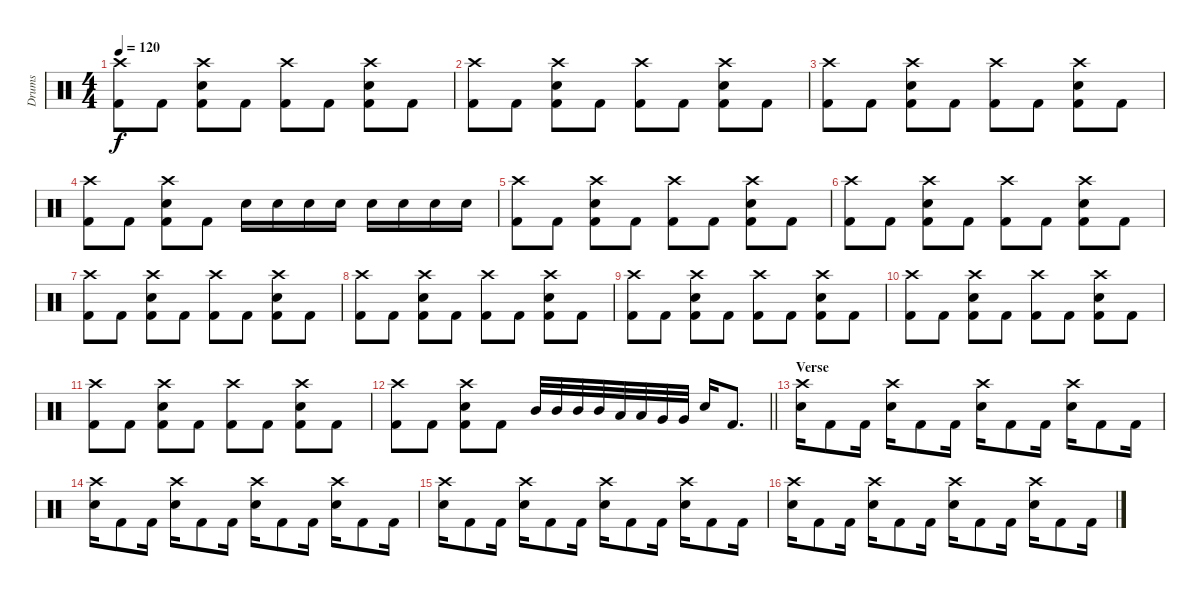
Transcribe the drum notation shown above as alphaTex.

\track ("Drums" "Drums") {instrument percussion}
\staff {score}
\articulation defaults
\ts (4 4)
\tempo 120
\clef neutral
\ks c
("Crash high (hit)" "Kick (hit) 2").8{dy f} "Kick (hit) 2".8 ("Crash high (hit)" "Electric Snare (hit)" "Kick (hit) 2").8 "Kick (hit) 2".8 ("Crash high (hit)" "Kick (hit) 2").8 "Kick (hit) 2".8 ("Crash high (hit)" "Electric Snare (hit)" "Kick (hit) 2").8 "Kick (hit) 2".8 |
("Crash high (hit)" "Kick (hit) 2").8 "Kick (hit) 2".8 ("Crash high (hit)" "Electric Snare (hit)" "Kick (hit) 2").8 "Kick (hit) 2".8 ("Crash high (hit)" "Kick (hit) 2").8 "Kick (hit) 2".8 ("Crash high (hit)" "Electric Snare (hit)" "Kick (hit) 2").8 "Kick (hit) 2".8 |
("Crash high (hit)" "Kick (hit) 2").8 "Kick (hit) 2".8 ("Crash high (hit)" "Electric Snare (hit)" "Kick (hit) 2").8 "Kick (hit) 2".8 ("Crash high (hit)" "Kick (hit) 2").8 "Kick (hit) 2".8 ("Crash high (hit)" "Electric Snare (hit)" "Kick (hit) 2").8 "Kick (hit) 2".8 |
("Crash high (hit)" "Kick (hit) 2").8 "Kick (hit) 2".8 ("Crash high (hit)" "Electric Snare (hit)" "Kick (hit) 2").8 "Kick (hit) 2".8 "Electric Snare (hit)".16 "Electric Snare (hit)".16 "Electric Snare (hit)".16 "Electric Snare (hit)".16 "Electric Snare (hit)".16 "Electric Snare (hit)".16 "Electric Snare (hit)".16 "Electric Snare (hit)".16 |
("Crash high (hit)" "Kick (hit) 2").8 "Kick (hit) 2".8 ("Crash high (hit)" "Electric Snare (hit)" "Kick (hit) 2").8 "Kick (hit) 2".8 ("Crash high (hit)" "Kick (hit) 2").8 "Kick (hit) 2".8 ("Crash high (hit)" "Electric Snare (hit)" "Kick (hit) 2").8 "Kick (hit) 2".8 |
("Crash high (hit)" "Kick (hit) 2").8 "Kick (hit) 2".8 ("Crash high (hit)" "Electric Snare (hit)" "Kick (hit) 2").8 "Kick (hit) 2".8 ("Crash high (hit)" "Kick (hit) 2").8 "Kick (hit) 2".8 ("Crash high (hit)" "Electric Snare (hit)" "Kick (hit) 2").8 "Kick (hit) 2".8 |
("Crash high (hit)" "Kick (hit) 2").8 "Kick (hit) 2".8 ("Crash high (hit)" "Electric Snare (hit)" "Kick (hit) 2").8 "Kick (hit) 2".8 ("Crash high (hit)" "Kick (hit) 2").8 "Kick (hit) 2".8 ("Crash high (hit)" "Electric Snare (hit)" "Kick (hit) 2").8 "Kick (hit) 2".8 |
("Crash high (hit)" "Kick (hit) 2").8 "Kick (hit) 2".8 ("Crash high (hit)" "Electric Snare (hit)" "Kick (hit) 2").8 "Kick (hit) 2".8 ("Crash high (hit)" "Kick (hit) 2").8 "Kick (hit) 2".8 ("Crash high (hit)" "Electric Snare (hit)" "Kick (hit) 2").8 "Kick (hit) 2".8 |
("Crash high (hit)" "Kick (hit) 2").8 "Kick (hit) 2".8 ("Crash high (hit)" "Electric Snare (hit)" "Kick (hit) 2").8 "Kick (hit) 2".8 ("Crash high (hit)" "Kick (hit) 2").8 "Kick (hit) 2".8 ("Crash high (hit)" "Electric Snare (hit)" "Kick (hit) 2").8 "Kick (hit) 2".8 |
("Crash high (hit)" "Kick (hit) 2").8 "Kick (hit) 2".8 ("Crash high (hit)" "Electric Snare (hit)" "Kick (hit) 2").8 "Kick (hit) 2".8 ("Crash high (hit)" "Kick (hit) 2").8 "Kick (hit) 2".8 ("Crash high (hit)" "Electric Snare (hit)" "Kick (hit) 2").8 "Kick (hit) 2".8 |
("Crash high (hit)" "Kick (hit) 2").8 "Kick (hit) 2".8 ("Crash high (hit)" "Electric Snare (hit)" "Kick (hit) 2").8 "Kick (hit) 2".8 ("Crash high (hit)" "Kick (hit) 2").8 "Kick (hit) 2".8 ("Crash high (hit)" "Electric Snare (hit)" "Kick (hit) 2").8 "Kick (hit) 2".8 |
\barLineRight lightlight
("Crash high (hit)" "Kick (hit) 2").8 "Kick (hit) 2".8 ("Crash high (hit)" "Electric Snare (hit)" "Kick (hit) 2").8 "Kick (hit) 2".8 "Mid Tom (hit)".32 "Mid Tom (hit)".32 "Mid Tom (hit)".32 "Mid Tom (hit)".32 "Low Tom (hit)".32 "Low Tom (hit)".32 "Very Low Tom (hit)".32 "Very Low Tom (hit)".32 "Electric Snare (hit)".16 "Kick (hit) 2".8{d} |
\section ("" "Verse")
("Crash high (hit)" "Electric Snare (hit)").16 "Kick (hit) 2".8 "Kick (hit) 2".16 ("Crash high (hit)" "Electric Snare (hit)").16 "Kick (hit) 2".8 "Kick (hit) 2".16 ("Crash high (hit)" "Electric Snare (hit)").16 "Kick (hit) 2".8 "Kick (hit) 2".16 ("Crash high (hit)" "Electric Snare (hit)").16 "Kick (hit) 2".8 "Kick (hit) 2".16 |
("Crash high (hit)" "Electric Snare (hit)").16 "Kick (hit) 2".8 "Kick (hit) 2".16 ("Crash high (hit)" "Electric Snare (hit)").16 "Kick (hit) 2".8 "Kick (hit) 2".16 ("Crash high (hit)" "Electric Snare (hit)").16 "Kick (hit) 2".8 "Kick (hit) 2".16 ("Crash high (hit)" "Electric Snare (hit)").16 "Kick (hit) 2".8 "Kick (hit) 2".16 |
("Crash high (hit)" "Electric Snare (hit)").16 "Kick (hit) 2".8 "Kick (hit) 2".16 ("Crash high (hit)" "Electric Snare (hit)").16 "Kick (hit) 2".8 "Kick (hit) 2".16 ("Crash high (hit)" "Electric Snare (hit)").16 "Kick (hit) 2".8 "Kick (hit) 2".16 ("Crash high (hit)" "Electric Snare (hit)").16 "Kick (hit) 2".8 "Kick (hit) 2".16 |
("Crash high (hit)" "Electric Snare (hit)").16 "Kick (hit) 2".8 "Kick (hit) 2".16 ("Crash high (hit)" "Electric Snare (hit)").16 "Kick (hit) 2".8 "Kick (hit) 2".16 ("Crash high (hit)" "Electric Snare (hit)").16 "Kick (hit) 2".8 "Kick (hit) 2".16 ("Crash high (hit)" "Electric Snare (hit)").16 "Kick (hit) 2".8 "Kick (hit) 2".16
